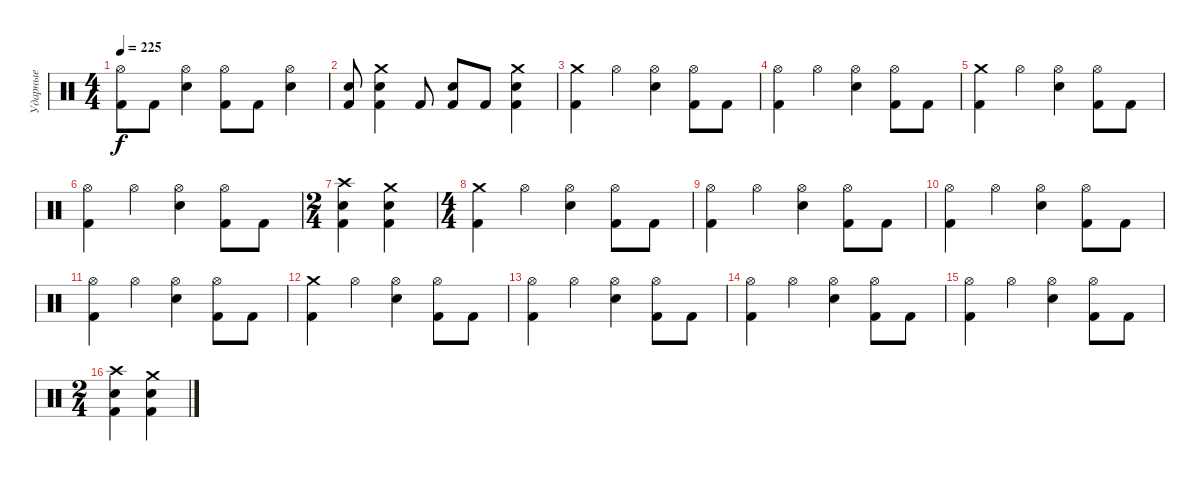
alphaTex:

\track ("Ударные" "Ударные") {instrument percussion}
\staff {score}
\articulation defaults
\ts (4 4)
\tempo 225
\clef neutral
\ks c
("Hi-Hat (open)" "Kick (hit) 2").8{dy f} "Kick (hit) 2".8 ("Hi-Hat (open)" "Snare (hit) 2").4 ("Hi-Hat (open)" "Kick (hit) 2").8 "Kick (hit) 2".8 ("Hi-Hat (open)" "Snare (hit) 2").4 |
("Snare (hit) 2" "Kick (hit) 2").8 ("Crash medium (hit)" "Snare (hit) 2" "Kick (hit) 2").4 "Kick (hit) 2".8 ("Snare (hit) 2" "Kick (hit) 2").8 "Kick (hit) 2".8 ("Crash medium (hit)" "Snare (hit) 2" "Kick (hit) 2").4 |
("Crash medium (hit)" "Kick (hit) 2").4 "Hi-Hat (open)".4 ("Hi-Hat (open)" "Snare (hit) 2").4 ("Hi-Hat (open)" "Kick (hit) 2").8 "Kick (hit) 2".8 |
("Hi-Hat (open)" "Kick (hit) 2").4 "Hi-Hat (open)".4 ("Hi-Hat (open)" "Snare (hit) 2").4 ("Hi-Hat (open)" "Kick (hit) 2").8 "Kick (hit) 2".8 |
("Crash medium (hit)" "Kick (hit) 2").4 "Hi-Hat (open)".4 ("Hi-Hat (open)" "Snare (hit) 2").4 ("Hi-Hat (open)" "Kick (hit) 2").8 "Kick (hit) 2".8 |
("Hi-Hat (open)" "Kick (hit) 2").4 "Hi-Hat (open)".4 ("Hi-Hat (open)" "Snare (hit) 2").4 ("Hi-Hat (open)" "Kick (hit) 2").8 "Kick (hit) 2".8 |
\ts (2 4)
("Crash high (hit)" "Snare (hit) 2" "Kick (hit) 2").4 ("Crash medium (hit)" "Snare (hit) 2" "Kick (hit) 2").4 |
\ts (4 4)
("Crash medium (hit)" "Kick (hit) 2").4 "Hi-Hat (open)".4 ("Hi-Hat (open)" "Snare (hit) 2").4 ("Hi-Hat (open)" "Kick (hit) 2").8 "Kick (hit) 2".8 |
("Hi-Hat (open)" "Kick (hit) 2").4 "Hi-Hat (open)".4 ("Hi-Hat (open)" "Snare (hit) 2").4 ("Hi-Hat (open)" "Kick (hit) 2").8 "Kick (hit) 2".8 |
("Hi-Hat (open)" "Kick (hit) 2").4 "Hi-Hat (open)".4 ("Hi-Hat (open)" "Snare (hit) 2").4 ("Hi-Hat (open)" "Kick (hit) 2").8 "Kick (hit) 2".8 |
("Hi-Hat (open)" "Kick (hit) 2").4 "Hi-Hat (open)".4 ("Hi-Hat (open)" "Snare (hit) 2").4 ("Hi-Hat (open)" "Kick (hit) 2").8 "Kick (hit) 2".8 |
("Crash medium (hit)" "Kick (hit) 2").4 "Hi-Hat (open)".4 ("Hi-Hat (open)" "Snare (hit) 2").4 ("Hi-Hat (open)" "Kick (hit) 2").8 "Kick (hit) 2".8 |
("Hi-Hat (open)" "Kick (hit) 2").4 "Hi-Hat (open)".4 ("Hi-Hat (open)" "Snare (hit) 2").4 ("Hi-Hat (open)" "Kick (hit) 2").8 "Kick (hit) 2".8 |
("Hi-Hat (open)" "Kick (hit) 2").4 "Hi-Hat (open)".4 ("Hi-Hat (open)" "Snare (hit) 2").4 ("Hi-Hat (open)" "Kick (hit) 2").8 "Kick (hit) 2".8 |
("Hi-Hat (open)" "Kick (hit) 2").4 "Hi-Hat (open)".4 ("Hi-Hat (open)" "Snare (hit) 2").4 ("Hi-Hat (open)" "Kick (hit) 2").8 "Kick (hit) 2".8 |
\ts (2 4)
("Crash high (hit)" "Snare (hit) 2" "Kick (hit) 2").4 ("Crash medium (hit)" "Snare (hit) 2" "Kick (hit) 2").4
